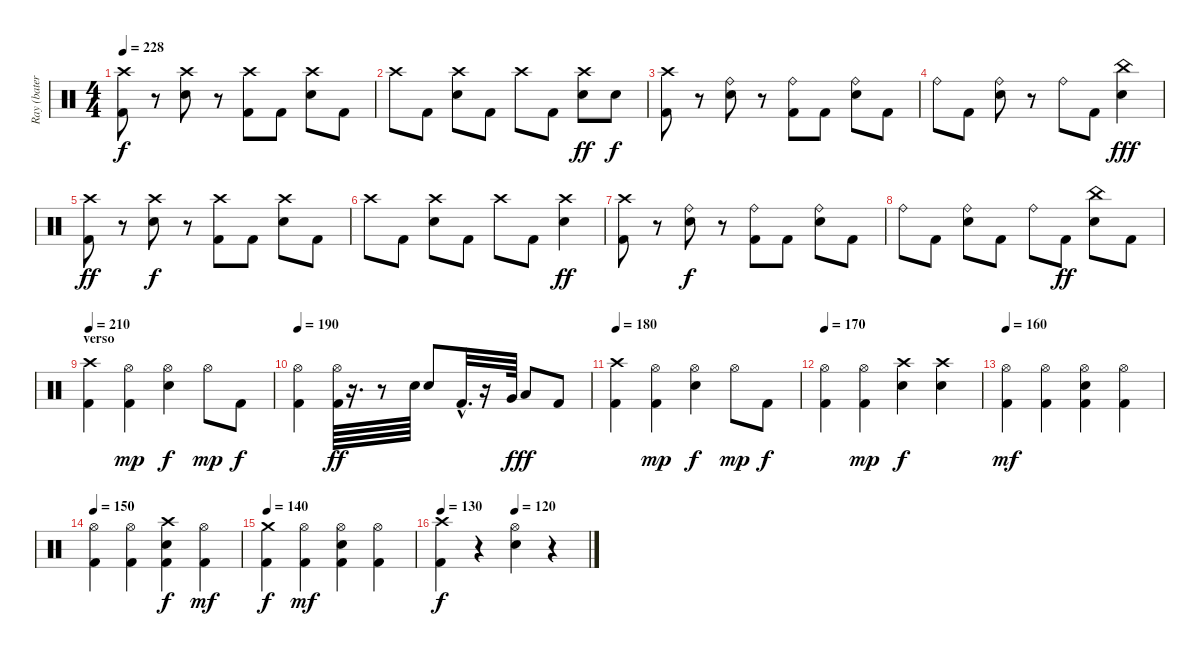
\track ("Ray (batería)" "Ray (bater") {instrument percussion}
\staff {score}
\articulation defaults
\ts (4 4)
\tempo 228
\clef neutral
\ks c
("Crash high (hit)" "Kick (hit) 2").8{dy f} r.8 ("Crash high (hit)" "Snare (hit) 2").8 r.8 ("Crash high (hit)" "Kick (hit) 2").8 "Kick (hit) 2".8 ("Crash high (hit)" "Snare (hit) 2").8 "Kick (hit) 2".8 |
"Crash high (hit)".8 "Kick (hit) 2".8 ("Crash high (hit)" "Snare (hit) 2").8 "Kick (hit) 2".8 "Crash high (hit)".8 "Kick (hit) 2".8 ("Crash high (hit)" "Snare (hit) 2").8{dy ff} "Snare (hit) 2".8{dy f} |
("Crash high (hit)" "Kick (hit) 2").8 r.8 ("Ride (bell)" "Snare (hit) 2").8 r.8 ("Ride (bell)" "Kick (hit) 2").8 "Kick (hit) 2".8 ("Ride (bell)" "Snare (hit) 2").8 "Kick (hit) 2".8 |
"Ride (bell)".8 "Kick (hit) 2".8 ("Ride (bell)" "Snare (hit) 2").8 r.8 "Ride (bell)".8 "Kick (hit) 2".8 ("China (hit)" "Snare (hit) 2").4{dy fff} |
("Crash high (hit)" "Kick (hit) 2").8{dy ff} r.8 ("Crash high (hit)" "Snare (hit) 2").8{dy f} r.8 ("Crash high (hit)" "Kick (hit) 2").8 "Kick (hit) 2".8 ("Crash high (hit)" "Snare (hit) 2").8 "Kick (hit) 2".8 |
"Crash high (hit)".8 "Kick (hit) 2".8 ("Crash high (hit)" "Snare (hit) 2").8 "Kick (hit) 2".8 "Crash high (hit)".8 "Kick (hit) 2".8 ("Crash high (hit)" "Snare (hit) 2").4{dy ff} |
("Crash high (hit)" "Kick (hit) 2").8 r.8 ("Ride (bell)" "Snare (hit) 2").8{dy f} r.8 ("Ride (bell)" "Kick (hit) 2").8 "Kick (hit) 2".8 ("Ride (bell)" "Snare (hit) 2").8 "Kick (hit) 2".8 |
"Ride (bell)".8 "Kick (hit) 2".8 ("Ride (bell)" "Snare (hit) 2").8 "Kick (hit) 2".8 "Ride (bell)".8 "Kick (hit) 2".8{dy ff} ("China (hit)" "Snare (hit) 2").8 "Kick (hit) 2".8 |
\section ("" "verso")
\tempo 210
("Crash high (hit)" "Kick (hit) 2").4 ("Hi-Hat (open)" "Kick (hit) 2").4{dy mp} ("Hi-Hat (open)" "Snare (hit) 2").4{dy f} "Hi-Hat (open)".8{dy mp} "Kick (hit) 2".8{dy f} |
\tempo 190
("Hi-Hat (open)" "Kick (hit) 2").4 ("Hi-Hat (open)" "Kick (hit) 2").64{dy ff} r.16{d} r.8 "Snare (hit) 2".64 "Snare (hit) 2".8 "Kick (hit) 2"{hac}.32{d} r.16 "Very Low Tom (hit)".64{dy f} "Low Tom (hit)".8{dy ff} "Kick (hit) 2".8 |
\tempo 180
("Crash high (hit)" "Kick (hit) 2").4 ("Hi-Hat (open)" "Kick (hit) 2").4{dy mp} ("Hi-Hat (open)" "Snare (hit) 2").4{dy f} "Hi-Hat (open)".8{dy mp} "Kick (hit) 2".8{dy f} |
\tempo 170
("Hi-Hat (open)" "Kick (hit) 2").4 ("Hi-Hat (open)" "Kick (hit) 2").4{dy mp} ("Crash high (hit)" "Snare (hit) 2").4{dy f} ("Crash high (hit)" "Snare (hit) 2").4 |
\tempo 160
("Hi-Hat (open)" "Kick (hit) 2").4{dy mf} ("Hi-Hat (open)" "Kick (hit) 2").4 ("Hi-Hat (open)" "Snare (hit) 2" "Kick (hit) 2").4 ("Hi-Hat (open)" "Kick (hit) 2").4 |
\tempo 150
("Hi-Hat (open)" "Kick (hit) 2").4 ("Hi-Hat (open)" "Kick (hit) 2").4 ("Crash high (hit)" "Snare (hit) 2" "Kick (hit) 2").4{dy f} ("Hi-Hat (open)" "Kick (hit) 2").4{dy mf} |
\tempo 140
("Crash medium (hit)" "Kick (hit) 2").4{dy f} ("Hi-Hat (open)" "Kick (hit) 2").4{dy mf} ("Hi-Hat (open)" "Snare (hit) 2" "Kick (hit) 2").4 ("Hi-Hat (open)" "Kick (hit) 2").4 |
\tempo 130
\tempo (120 0.5)
("Crash high (hit)" "Kick (hit) 2").4{dy f} r.4 ("Hi-Hat (open)" "Snare (hit) 2").4 r.4
